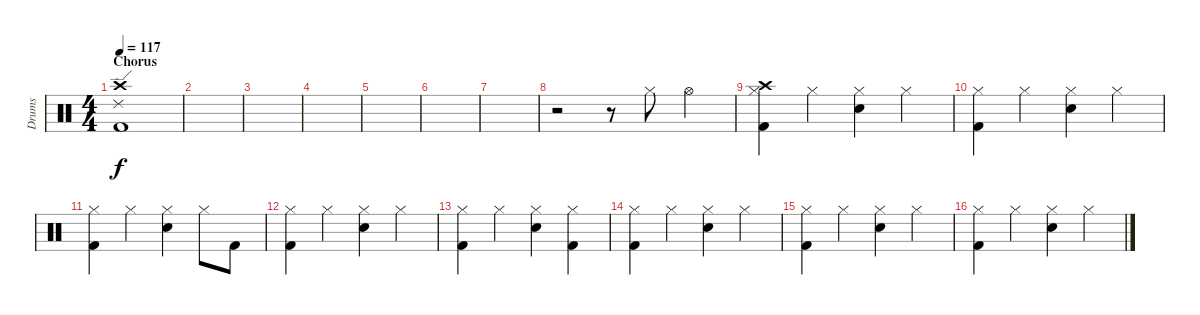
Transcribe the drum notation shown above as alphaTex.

\track ("Drums" "Drums") {instrument percussion}
\staff {score}
\articulation defaults
\ts (4 4)
\section ("" "Chorus")
\tempo 117
\clef neutral
\ks c
("Kick (hit) 2" "Ride (edge) 2" "Crash high (hit)").1{dy f} |
|
|
|
|
|
|
r.2 r.8 "Hi-Hat (closed)".8 "Hi-Hat (open)".4 |
("Kick (hit) 2" "Hi-Hat (closed)" "Crash high (hit)").4 "Hi-Hat (closed)".4 ("Snare (hit) 2" "Hi-Hat (closed)").4 "Hi-Hat (closed)".4 |
("Kick (hit) 2" "Hi-Hat (closed)").4 "Hi-Hat (closed)".4 ("Snare (hit) 2" "Hi-Hat (closed)").4 "Hi-Hat (closed)".4 |
("Kick (hit) 2" "Hi-Hat (closed)").4 "Hi-Hat (closed)".4 ("Snare (hit) 2" "Hi-Hat (closed)").4 "Hi-Hat (closed)".8 "Kick (hit) 2".8 |
("Kick (hit) 2" "Hi-Hat (closed)").4 "Hi-Hat (closed)".4 ("Snare (hit) 2" "Hi-Hat (closed)").4 "Hi-Hat (closed)".4 |
("Kick (hit) 2" "Hi-Hat (closed)").4 "Hi-Hat (closed)".4 ("Snare (hit) 2" "Hi-Hat (closed)").4 ("Kick (hit) 2" "Hi-Hat (closed)").4 |
("Kick (hit) 2" "Hi-Hat (closed)").4 "Hi-Hat (closed)".4 ("Snare (hit) 2" "Hi-Hat (closed)").4 "Hi-Hat (closed)".4 |
("Kick (hit) 2" "Hi-Hat (closed)").4 "Hi-Hat (closed)".4 ("Snare (hit) 2" "Hi-Hat (closed)").4 "Hi-Hat (closed)".4 |
("Kick (hit) 2" "Hi-Hat (closed)").4 "Hi-Hat (closed)".4 ("Snare (hit) 2" "Hi-Hat (closed)").4 "Hi-Hat (closed)".4
